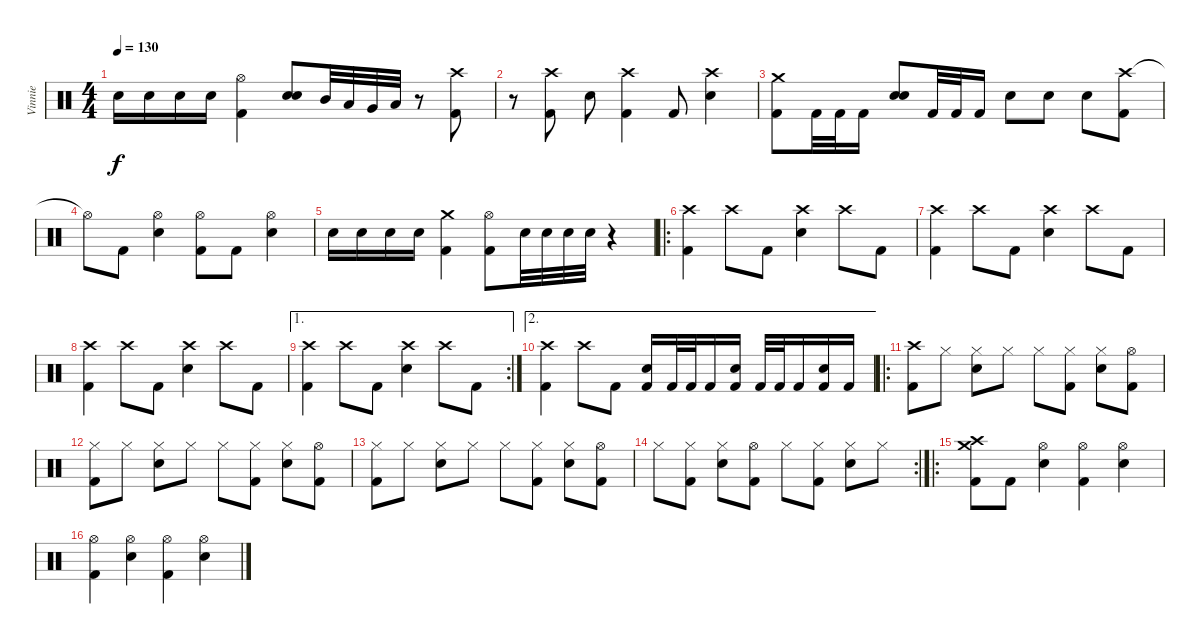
\track ("Vinnie" "Vinnie") {instrument percussion}
\staff {score}
\articulation defaults
\ts (4 4)
\tempo 130
\clef neutral
\ks c "Snare (hit) 2".16{dy f} "Snare (hit) 2".16 "Snare (hit) 2".16 "Snare (hit) 2".16
("Hi-Hat (open)" "Kick (hit) 2").4 ("Snare (hit) 2" "Snare (hit) 2").8{bd 120} "Mid Tom (hit)".32 "Low Tom (hit)".32 "Very Low Tom (hit)".32 "Low Floor Tom (hit)".32 r.8 ("Crash high (hit)" "Kick (hit) 2").8 |
r.8 ("Crash high (hit)" "Kick (hit) 2").8 "Snare (hit) 2".8 ("Crash high (hit)" "Kick (hit) 2").4 "Kick (hit) 2".8 ("Crash high (hit)" "Snare (hit) 2").4 |
("Crash medium (hit)" "Kick (hit) 2").8 "Kick (hit) 2".32 "Kick (hit) 2".32 "Kick (hit) 2".16 ("Snare (hit) 2" "Snare (hit) 2").8{bd 120} "Kick (hit) 2".32 "Kick (hit) 2".32 "Kick (hit) 2".16 "Snare (hit) 2".8 "Snare (hit) 2".8 "Snare (hit) 2".8 ("Crash high (hit)" "Kick (hit) 2").8 |
"Hi-Hat (open)"{t}.8 "Kick (hit) 2".8 ("Hi-Hat (open)" "Snare (hit) 2").4 ("Hi-Hat (open)" "Kick (hit) 2").8 "Kick (hit) 2".8 ("Hi-Hat (open)" "Snare (hit) 2").4 |
"Snare (hit) 2".16 "Snare (hit) 2".16 "Snare (hit) 2".16 "Snare (hit) 2".16 ("Crash medium (hit)" "Kick (hit) 2").4 ("Hi-Hat (open)" "Kick (hit) 2").8{bd 120} "Snare (hit) 2".32 "Snare (hit) 2".32 "Snare (hit) 2".32 "Snare (hit) 2".32 r.4 |
\ro
("Crash high (hit)" "Kick (hit) 2").4 "Crash high (hit)".8 "Kick (hit) 2".8 ("Crash high (hit)" "Snare (hit) 2").4 "Crash high (hit)".8 "Kick (hit) 2".8 |
("Crash high (hit)" "Kick (hit) 2").4 "Crash high (hit)".8 "Kick (hit) 2".8 ("Crash high (hit)" "Snare (hit) 2").4 "Crash high (hit)".8 "Kick (hit) 2".8 |
("Crash high (hit)" "Kick (hit) 2").4 "Crash high (hit)".8 "Kick (hit) 2".8 ("Crash high (hit)" "Snare (hit) 2").4 "Crash high (hit)".8 "Kick (hit) 2".8 |
\ae 1
\rc 2
("Crash high (hit)" "Kick (hit) 2").4 "Crash high (hit)".8 "Kick (hit) 2".8 ("Crash high (hit)" "Snare (hit) 2").4 "Crash high (hit)".8 "Kick (hit) 2".8 |
\ae 2
("Crash high (hit)" "Kick (hit) 2").4 "Crash high (hit)".8 "Kick (hit) 2".8 ("Snare (hit) 2" "Kick (hit) 2").16 "Kick (hit) 2".32 "Kick (hit) 2".32 "Kick (hit) 2".16 ("Snare (hit) 2" "Kick (hit) 2").16 "Kick (hit) 2".32 "Kick (hit) 2".32 "Kick (hit) 2".16 ("Snare (hit) 2" "Kick (hit) 2").16 "Kick (hit) 2".16 |
\ro
("Crash high (hit)" "Kick (hit) 2").8 "Hi-Hat (closed)".8 ("Hi-Hat (closed)" "Snare (hit) 2").8 "Hi-Hat (closed)".8 "Hi-Hat (closed)".8 ("Hi-Hat (closed)" "Kick (hit) 2").8 ("Hi-Hat (closed)" "Snare (hit) 2").8 ("Hi-Hat (open)" "Kick (hit) 2").8 |
("Hi-Hat (closed)" "Kick (hit) 2").8 "Hi-Hat (closed)".8 ("Hi-Hat (closed)" "Snare (hit) 2").8 "Hi-Hat (closed)".8 "Hi-Hat (closed)".8 ("Hi-Hat (closed)" "Kick (hit) 2").8 ("Hi-Hat (closed)" "Snare (hit) 2").8 ("Hi-Hat (open)" "Kick (hit) 2").8 |
("Hi-Hat (closed)" "Kick (hit) 2").8 "Hi-Hat (closed)".8 ("Hi-Hat (closed)" "Snare (hit) 2").8 "Hi-Hat (closed)".8 "Hi-Hat (closed)".8 ("Hi-Hat (closed)" "Kick (hit) 2").8 ("Hi-Hat (closed)" "Snare (hit) 2").8 ("Hi-Hat (open)" "Kick (hit) 2").8 |
\rc 2 "Hi-Hat (closed)".8
("Hi-Hat (closed)" "Kick (hit) 2").8 ("Hi-Hat (closed)" "Snare (hit) 2").8 ("Hi-Hat (open)" "Kick (hit) 2").8 "Hi-Hat (closed)".8 ("Hi-Hat (closed)" "Kick (hit) 2").8 ("Hi-Hat (closed)" "Snare (hit) 2").8 "Hi-Hat (closed)".8 |
\ro
("Crash high (hit)" "Crash medium (hit)" "Kick (hit) 2").8 "Kick (hit) 2".8 ("Hi-Hat (open)" "Snare (hit) 2").4 ("Hi-Hat (open)" "Kick (hit) 2").4 ("Hi-Hat (open)" "Snare (hit) 2").4 |
("Hi-Hat (open)" "Kick (hit) 2").4 ("Hi-Hat (open)" "Snare (hit) 2").4 ("Hi-Hat (open)" "Kick (hit) 2").4 ("Hi-Hat (open)" "Snare (hit) 2").4
